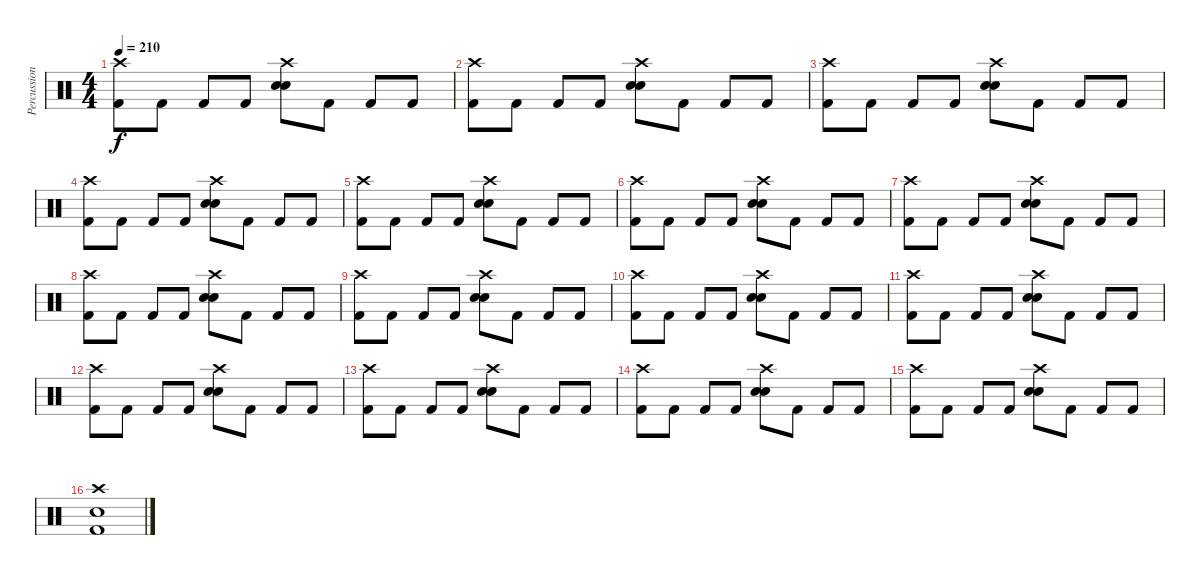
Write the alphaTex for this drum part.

\track ("Percussion" "Percussion") {instrument percussion}
\staff {score}
\articulation defaults
\ts (4 4)
\tempo 210
\clef neutral
\ks c
("Kick (hit) 2" "Crash high (hit)").8{dy f} "Kick (hit) 2".8 "Kick (hit) 2".8 "Kick (hit) 2".8 ("Snare (hit) 2" "Electric Snare (hit)" "Crash high (hit)").8 "Kick (hit) 2".8 "Kick (hit) 2".8 "Kick (hit) 2".8 |
("Kick (hit) 2" "Crash high (hit)").8 "Kick (hit) 2".8 "Kick (hit) 2".8 "Kick (hit) 2".8 ("Snare (hit) 2" "Electric Snare (hit)" "Crash high (hit)").8 "Kick (hit) 2".8 "Kick (hit) 2".8 "Kick (hit) 2".8 |
("Kick (hit) 2" "Crash high (hit)").8 "Kick (hit) 2".8 "Kick (hit) 2".8 "Kick (hit) 2".8 ("Snare (hit) 2" "Electric Snare (hit)" "Crash high (hit)").8 "Kick (hit) 2".8 "Kick (hit) 2".8 "Kick (hit) 2".8 |
("Kick (hit) 2" "Crash high (hit)").8 "Kick (hit) 2".8 "Kick (hit) 2".8 "Kick (hit) 2".8 ("Snare (hit) 2" "Electric Snare (hit)" "Crash high (hit)").8 "Kick (hit) 2".8 "Kick (hit) 2".8 "Kick (hit) 2".8 |
("Kick (hit) 2" "Crash high (hit)").8 "Kick (hit) 2".8 "Kick (hit) 2".8 "Kick (hit) 2".8 ("Snare (hit) 2" "Electric Snare (hit)" "Crash high (hit)").8 "Kick (hit) 2".8 "Kick (hit) 2".8 "Kick (hit) 2".8 |
("Kick (hit) 2" "Crash high (hit)").8 "Kick (hit) 2".8 "Kick (hit) 2".8 "Kick (hit) 2".8 ("Snare (hit) 2" "Electric Snare (hit)" "Crash high (hit)").8 "Kick (hit) 2".8 "Kick (hit) 2".8 "Kick (hit) 2".8 |
("Kick (hit) 2" "Crash high (hit)").8 "Kick (hit) 2".8 "Kick (hit) 2".8 "Kick (hit) 2".8 ("Snare (hit) 2" "Electric Snare (hit)" "Crash high (hit)").8 "Kick (hit) 2".8 "Kick (hit) 2".8 "Kick (hit) 2".8 |
("Kick (hit) 2" "Crash high (hit)").8 "Kick (hit) 2".8 "Kick (hit) 2".8 "Kick (hit) 2".8 ("Snare (hit) 2" "Electric Snare (hit)" "Crash high (hit)").8 "Kick (hit) 2".8 "Kick (hit) 2".8 "Kick (hit) 2".8 |
("Kick (hit) 2" "Crash high (hit)").8 "Kick (hit) 2".8 "Kick (hit) 2".8 "Kick (hit) 2".8 ("Snare (hit) 2" "Electric Snare (hit)" "Crash high (hit)").8 "Kick (hit) 2".8 "Kick (hit) 2".8 "Kick (hit) 2".8 |
("Kick (hit) 2" "Crash high (hit)").8 "Kick (hit) 2".8 "Kick (hit) 2".8 "Kick (hit) 2".8 ("Snare (hit) 2" "Electric Snare (hit)" "Crash high (hit)").8 "Kick (hit) 2".8 "Kick (hit) 2".8 "Kick (hit) 2".8 |
("Kick (hit) 2" "Crash high (hit)").8 "Kick (hit) 2".8 "Kick (hit) 2".8 "Kick (hit) 2".8 ("Snare (hit) 2" "Electric Snare (hit)" "Crash high (hit)").8 "Kick (hit) 2".8 "Kick (hit) 2".8 "Kick (hit) 2".8 |
("Kick (hit) 2" "Crash high (hit)").8 "Kick (hit) 2".8 "Kick (hit) 2".8 "Kick (hit) 2".8 ("Snare (hit) 2" "Electric Snare (hit)" "Crash high (hit)").8 "Kick (hit) 2".8 "Kick (hit) 2".8 "Kick (hit) 2".8 |
("Kick (hit) 2" "Crash high (hit)").8 "Kick (hit) 2".8 "Kick (hit) 2".8 "Kick (hit) 2".8 ("Snare (hit) 2" "Electric Snare (hit)" "Crash high (hit)").8 "Kick (hit) 2".8 "Kick (hit) 2".8 "Kick (hit) 2".8 |
("Kick (hit) 2" "Crash high (hit)").8 "Kick (hit) 2".8 "Kick (hit) 2".8 "Kick (hit) 2".8 ("Snare (hit) 2" "Electric Snare (hit)" "Crash high (hit)").8 "Kick (hit) 2".8 "Kick (hit) 2".8 "Kick (hit) 2".8 |
("Kick (hit) 2" "Crash high (hit)").8 "Kick (hit) 2".8 "Kick (hit) 2".8 "Kick (hit) 2".8 ("Snare (hit) 2" "Electric Snare (hit)" "Crash high (hit)").8 "Kick (hit) 2".8 "Kick (hit) 2".8 "Kick (hit) 2".8 |
("Kick (hit) 2" "Snare (hit) 2" "Crash high (hit)").1
